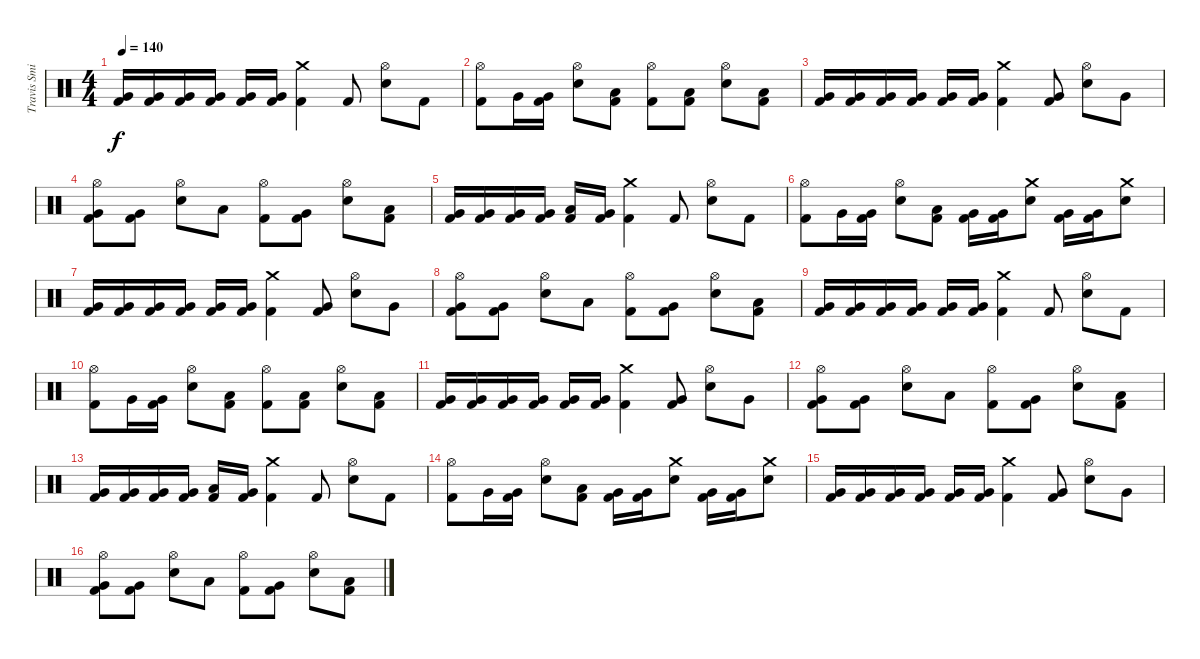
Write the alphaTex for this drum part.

\track ("Travis Smith" "Travis Smi") {instrument percussion}
\staff {score}
\articulation defaults
\ts (4 4)
\tempo 140
\clef neutral
\ks c
("Very Low Tom (hit)" "Kick (hit) 2").16{dy f} ("Very Low Tom (hit)" "Kick (hit) 2").16 ("Very Low Tom (hit)" "Kick (hit) 2").16 ("Very Low Tom (hit)" "Kick (hit) 2").16 ("Very Low Tom (hit)" "Kick (hit) 2").16 ("Very Low Tom (hit)" "Kick (hit) 2").16 ("Crash medium (hit)" "Kick (hit) 2").4 "Kick (hit) 2".8 ("Hi-Hat (open)" "Electric Snare (hit)").8 "Kick (hit) 2".8 |
("Hi-Hat (open)" "Kick (hit) 2").8 "Very Low Tom (hit)".16 ("Very Low Tom (hit)" "Kick (hit) 2").16 ("Hi-Hat (open)" "Electric Snare (hit)").8 ("Low Floor Tom (hit)" "Kick (hit) 2").8 ("Hi-Hat (open)" "Kick (hit) 2").8 ("Low Floor Tom (hit)" "Kick (hit) 2").8 ("Hi-Hat (open)" "Electric Snare (hit)").8 ("Low Floor Tom (hit)" "Kick (hit) 2").8 |
("Very Low Tom (hit)" "Kick (hit) 2").16{volume 8} ("Very Low Tom (hit)" "Kick (hit) 2").16 ("Very Low Tom (hit)" "Kick (hit) 2").16 ("Very Low Tom (hit)" "Kick (hit) 2").16 ("Very Low Tom (hit)" "Kick (hit) 2").16 ("Very Low Tom (hit)" "Kick (hit) 2").16 ("Crash medium (hit)" "Kick (hit) 2").4 ("Very Low Tom (hit)" "Kick (hit) 2").8 ("Hi-Hat (open)" "Electric Snare (hit)").8 "Very Low Tom (hit)".8 |
("Hi-Hat (open)" "Very Low Tom (hit)" "Kick (hit) 2").8 ("Very Low Tom (hit)" "Kick (hit) 2").8 ("Hi-Hat (open)" "Electric Snare (hit)").8 "Low Floor Tom (hit)".8 ("Hi-Hat (open)" "Kick (hit) 2").8 ("Very Low Tom (hit)" "Kick (hit) 2").8 ("Hi-Hat (open)" "Electric Snare (hit)").8 ("Low Tom (hit)" "Kick (hit) 2").8 |
("Very Low Tom (hit)" "Kick (hit) 2").16 ("Very Low Tom (hit)" "Kick (hit) 2").16 ("Very Low Tom (hit)" "Kick (hit) 2").16 ("Very Low Tom (hit)" "Kick (hit) 2").16 ("Low Tom (hit)" "Kick (hit) 2").16 ("Very Low Tom (hit)" "Kick (hit) 2").16 ("Crash medium (hit)" "Kick (hit) 2").4 "Kick (hit) 2".8 ("Hi-Hat (open)" "Electric Snare (hit)").8 "Kick (hit) 2".8 |
("Hi-Hat (open)" "Kick (hit) 2").8 "Very Low Tom (hit)".16 ("Very Low Tom (hit)" "Kick (hit) 2").16 ("Hi-Hat (open)" "Electric Snare (hit)").8 ("Low Floor Tom (hit)" "Kick (hit) 2").8 ("Very Low Tom (hit)" "Kick (hit) 2").16 ("Very Low Tom (hit)" "Kick (hit) 2").16 ("Crash medium (hit)" "Electric Snare (hit)").8 ("Very Low Tom (hit)" "Kick (hit) 2").16 ("Very Low Tom (hit)" "Kick (hit) 2").16 ("Crash medium (hit)" "Electric Snare (hit)").8 |
("Very Low Tom (hit)" "Kick (hit) 2").16{volume 6} ("Very Low Tom (hit)" "Kick (hit) 2").16 ("Very Low Tom (hit)" "Kick (hit) 2").16 ("Very Low Tom (hit)" "Kick (hit) 2").16 ("Very Low Tom (hit)" "Kick (hit) 2").16 ("Very Low Tom (hit)" "Kick (hit) 2").16 ("Crash medium (hit)" "Kick (hit) 2").4 ("Very Low Tom (hit)" "Kick (hit) 2").8 ("Hi-Hat (open)" "Electric Snare (hit)").8 "Very Low Tom (hit)".8 |
("Hi-Hat (open)" "Very Low Tom (hit)" "Kick (hit) 2").8 ("Very Low Tom (hit)" "Kick (hit) 2").8 ("Hi-Hat (open)" "Electric Snare (hit)").8 "Low Floor Tom (hit)".8 ("Hi-Hat (open)" "Kick (hit) 2").8 ("Very Low Tom (hit)" "Kick (hit) 2").8 ("Hi-Hat (open)" "Electric Snare (hit)").8 ("Low Tom (hit)" "Kick (hit) 2").8 |
("Very Low Tom (hit)" "Kick (hit) 2").16 ("Very Low Tom (hit)" "Kick (hit) 2").16 ("Very Low Tom (hit)" "Kick (hit) 2").16 ("Very Low Tom (hit)" "Kick (hit) 2").16 ("Very Low Tom (hit)" "Kick (hit) 2").16 ("Very Low Tom (hit)" "Kick (hit) 2").16 ("Crash medium (hit)" "Kick (hit) 2").4 "Kick (hit) 2".8 ("Hi-Hat (open)" "Electric Snare (hit)").8 "Kick (hit) 2".8 |
("Hi-Hat (open)" "Kick (hit) 2").8 "Very Low Tom (hit)".16 ("Very Low Tom (hit)" "Kick (hit) 2").16 ("Hi-Hat (open)" "Electric Snare (hit)").8 ("Low Floor Tom (hit)" "Kick (hit) 2").8 ("Hi-Hat (open)" "Kick (hit) 2").8 ("Low Floor Tom (hit)" "Kick (hit) 2").8 ("Hi-Hat (open)" "Electric Snare (hit)").8 ("Low Floor Tom (hit)" "Kick (hit) 2").8 |
("Very Low Tom (hit)" "Kick (hit) 2").16{volume 4} ("Very Low Tom (hit)" "Kick (hit) 2").16 ("Very Low Tom (hit)" "Kick (hit) 2").16 ("Very Low Tom (hit)" "Kick (hit) 2").16 ("Very Low Tom (hit)" "Kick (hit) 2").16 ("Very Low Tom (hit)" "Kick (hit) 2").16 ("Crash medium (hit)" "Kick (hit) 2").4 ("Very Low Tom (hit)" "Kick (hit) 2").8 ("Hi-Hat (open)" "Electric Snare (hit)").8 "Very Low Tom (hit)".8 |
("Hi-Hat (open)" "Very Low Tom (hit)" "Kick (hit) 2").8 ("Very Low Tom (hit)" "Kick (hit) 2").8 ("Hi-Hat (open)" "Electric Snare (hit)").8 "Low Floor Tom (hit)".8 ("Hi-Hat (open)" "Kick (hit) 2").8 ("Very Low Tom (hit)" "Kick (hit) 2").8 ("Hi-Hat (open)" "Electric Snare (hit)").8 ("Low Tom (hit)" "Kick (hit) 2").8 |
("Very Low Tom (hit)" "Kick (hit) 2").16 ("Very Low Tom (hit)" "Kick (hit) 2").16 ("Very Low Tom (hit)" "Kick (hit) 2").16 ("Very Low Tom (hit)" "Kick (hit) 2").16 ("Low Tom (hit)" "Kick (hit) 2").16 ("Very Low Tom (hit)" "Kick (hit) 2").16 ("Crash medium (hit)" "Kick (hit) 2").4 "Kick (hit) 2".8 ("Hi-Hat (open)" "Electric Snare (hit)").8 "Kick (hit) 2".8 |
("Hi-Hat (open)" "Kick (hit) 2").8 "Very Low Tom (hit)".16 ("Very Low Tom (hit)" "Kick (hit) 2").16 ("Hi-Hat (open)" "Electric Snare (hit)").8 ("Low Floor Tom (hit)" "Kick (hit) 2").8 ("Very Low Tom (hit)" "Kick (hit) 2").16 ("Very Low Tom (hit)" "Kick (hit) 2").16 ("Crash medium (hit)" "Electric Snare (hit)").8 ("Very Low Tom (hit)" "Kick (hit) 2").16 ("Very Low Tom (hit)" "Kick (hit) 2").16 ("Crash medium (hit)" "Electric Snare (hit)").8 |
("Very Low Tom (hit)" "Kick (hit) 2").16{volume 2} ("Very Low Tom (hit)" "Kick (hit) 2").16 ("Very Low Tom (hit)" "Kick (hit) 2").16 ("Very Low Tom (hit)" "Kick (hit) 2").16 ("Very Low Tom (hit)" "Kick (hit) 2").16 ("Very Low Tom (hit)" "Kick (hit) 2").16 ("Crash medium (hit)" "Kick (hit) 2").4 ("Very Low Tom (hit)" "Kick (hit) 2").8 ("Hi-Hat (open)" "Electric Snare (hit)").8 "Very Low Tom (hit)".8 |
("Hi-Hat (open)" "Very Low Tom (hit)" "Kick (hit) 2").8 ("Very Low Tom (hit)" "Kick (hit) 2").8 ("Hi-Hat (open)" "Electric Snare (hit)").8 "Low Floor Tom (hit)".8 ("Hi-Hat (open)" "Kick (hit) 2").8 ("Very Low Tom (hit)" "Kick (hit) 2").8 ("Hi-Hat (open)" "Electric Snare (hit)").8 ("Low Tom (hit)" "Kick (hit) 2").8
